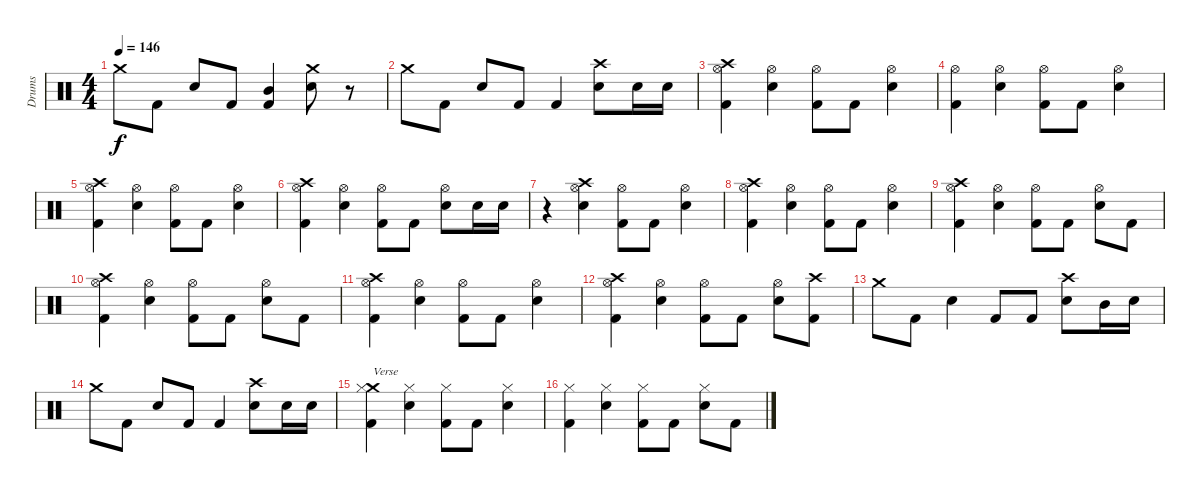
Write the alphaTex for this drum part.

\track ("Drums" "Drums") {instrument percussion}
\staff {score}
\articulation defaults
\ts (4 4)
\tempo 146
\clef neutral
\ks c "Crash medium (hit)".8{dy f} "Kick (hit) 2".8 "Electric Snare (hit)".8 "Kick (hit) 2".8
("Mid Tom (hit)" "Kick (hit) 2").4 ("Crash medium (hit)" "Electric Snare (hit)").8 r.8 |
"Crash medium (hit)".8 "Kick (hit) 2".8 "Electric Snare (hit)".8 "Kick (hit) 2".8 "Kick (hit) 2".4 ("Crash high (hit)" "Electric Snare (hit)").8 "Electric Snare (hit)".16 "Electric Snare (hit)".16 |
("Crash high (hit)" "Hi-Hat (open)" "Kick (hit) 2").4 ("Hi-Hat (open)" "Electric Snare (hit)").4 ("Hi-Hat (open)" "Kick (hit) 2").8 "Kick (hit) 2".8 ("Hi-Hat (open)" "Electric Snare (hit)").4 |
("Hi-Hat (open)" "Kick (hit) 2").4 ("Hi-Hat (open)" "Electric Snare (hit)").4 ("Hi-Hat (open)" "Kick (hit) 2").8 "Kick (hit) 2".8 ("Hi-Hat (open)" "Electric Snare (hit)").4 |
("Crash high (hit)" "Hi-Hat (open)" "Kick (hit) 2").4 ("Hi-Hat (open)" "Electric Snare (hit)").4 ("Hi-Hat (open)" "Kick (hit) 2").8 "Kick (hit) 2".8 ("Hi-Hat (open)" "Electric Snare (hit)").4 |
("Crash high (hit)" "Hi-Hat (open)" "Kick (hit) 2").4 ("Hi-Hat (open)" "Electric Snare (hit)").4 ("Hi-Hat (open)" "Kick (hit) 2").8 "Kick (hit) 2".8 ("Hi-Hat (open)" "Electric Snare (hit)").8 "Electric Snare (hit)".16 "Electric Snare (hit)".16 |
r.4 ("Crash high (hit)" "Hi-Hat (open)" "Electric Snare (hit)").4 ("Hi-Hat (open)" "Kick (hit) 2").8 "Kick (hit) 2".8 ("Hi-Hat (open)" "Electric Snare (hit)").4 |
("Crash high (hit)" "Hi-Hat (open)" "Kick (hit) 2").4 ("Hi-Hat (open)" "Electric Snare (hit)").4 ("Hi-Hat (open)" "Kick (hit) 2").8 "Kick (hit) 2".8 ("Hi-Hat (open)" "Electric Snare (hit)").4 |
("Crash high (hit)" "Hi-Hat (open)" "Kick (hit) 2").4 ("Hi-Hat (open)" "Electric Snare (hit)").4 ("Hi-Hat (open)" "Kick (hit) 2").8 "Kick (hit) 2".8 ("Hi-Hat (open)" "Electric Snare (hit)").8 "Kick (hit) 2".8 |
("Crash high (hit)" "Hi-Hat (open)" "Kick (hit) 2").4 ("Hi-Hat (open)" "Electric Snare (hit)").4 ("Hi-Hat (open)" "Kick (hit) 2").8 "Kick (hit) 2".8 ("Hi-Hat (open)" "Electric Snare (hit)").8 "Kick (hit) 2".8 |
("Crash high (hit)" "Hi-Hat (open)" "Kick (hit) 2").4 ("Hi-Hat (open)" "Electric Snare (hit)").4 ("Hi-Hat (open)" "Kick (hit) 2").8 "Kick (hit) 2".8 ("Hi-Hat (open)" "Electric Snare (hit)").4 |
("Crash high (hit)" "Hi-Hat (open)" "Kick (hit) 2").4 ("Hi-Hat (open)" "Electric Snare (hit)").4 ("Hi-Hat (open)" "Kick (hit) 2").8 "Kick (hit) 2".8 ("Hi-Hat (open)" "Electric Snare (hit)").8 ("Crash high (hit)" "Kick (hit) 2").8 |
"Crash medium (hit)".8 "Kick (hit) 2".8 "Electric Snare (hit)".4 "Kick (hit) 2".8 "Kick (hit) 2".8 ("Crash high (hit)" "Electric Snare (hit)").8 "Mid Tom (hit)".16 "Electric Snare (hit)".16 |
"Crash medium (hit)".8 "Kick (hit) 2".8 "Electric Snare (hit)".8 "Kick (hit) 2".8 "Kick (hit) 2".4 ("Crash high (hit)" "Electric Snare (hit)").8 "Electric Snare (hit)".16 "Electric Snare (hit)".16 |
("Crash medium (hit)" "Hi-Hat (closed)" "Kick (hit) 2").4{txt "Verse"} ("Hi-Hat (closed)" "Electric Snare (hit)").4 ("Hi-Hat (closed)" "Kick (hit) 2").8 "Kick (hit) 2".8 ("Hi-Hat (closed)" "Electric Snare (hit)").4 |
("Hi-Hat (closed)" "Kick (hit) 2").4 ("Hi-Hat (closed)" "Electric Snare (hit)").4 ("Hi-Hat (closed)" "Kick (hit) 2").8 "Kick (hit) 2".8 ("Hi-Hat (closed)" "Electric Snare (hit)").8 "Kick (hit) 2".8
